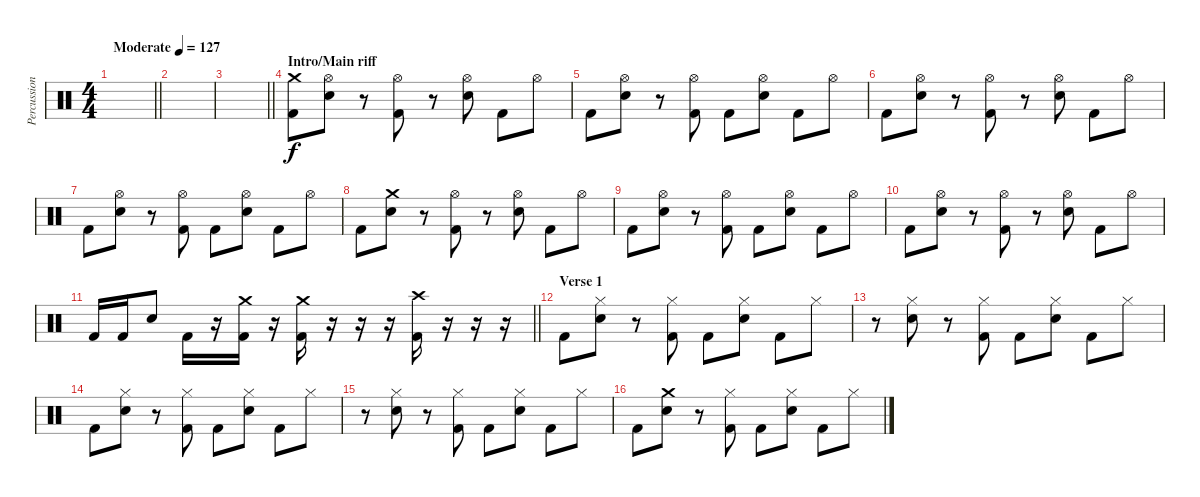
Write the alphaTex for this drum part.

\track ("Percussion" "Percussion") {instrument percussion}
\staff {score}
\articulation defaults
\ts (4 4)
\tempo (127 "Moderate")
\clef neutral
\barLineRight lightlight
\ks c
|
|
\barLineRight lightlight
|
\section ("" "Intro/Main riff")
("Crash medium (hit)" "Kick (hit) 2").8 ("Hi-Hat (open)" "Electric Snare (hit)").8 r.8 ("Hi-Hat (open)" "Kick (hit) 2").8 r.8 ("Hi-Hat (open)" "Electric Snare (hit)").8 "Kick (hit) 2".8 "Hi-Hat (open)".8 |
"Kick (hit) 2".8 ("Hi-Hat (open)" "Electric Snare (hit)").8 r.8 ("Hi-Hat (open)" "Kick (hit) 2").8 "Kick (hit) 2".8 ("Hi-Hat (open)" "Electric Snare (hit)").8 "Kick (hit) 2".8 "Hi-Hat (open)".8 |
"Kick (hit) 2".8 ("Hi-Hat (open)" "Electric Snare (hit)").8 r.8 ("Hi-Hat (open)" "Kick (hit) 2").8 r.8 ("Hi-Hat (open)" "Electric Snare (hit)").8 "Kick (hit) 2".8 "Hi-Hat (open)".8 |
"Kick (hit) 2".8 ("Hi-Hat (open)" "Electric Snare (hit)").8 r.8 ("Hi-Hat (open)" "Kick (hit) 2").8 "Kick (hit) 2".8 ("Hi-Hat (open)" "Electric Snare (hit)").8 "Kick (hit) 2".8 "Hi-Hat (open)".8 |
"Kick (hit) 2".8 ("Crash medium (hit)" "Electric Snare (hit)").8 r.8 ("Hi-Hat (open)" "Kick (hit) 2").8 r.8 ("Hi-Hat (open)" "Electric Snare (hit)").8 "Kick (hit) 2".8 "Hi-Hat (open)".8 |
"Kick (hit) 2".8 ("Hi-Hat (open)" "Electric Snare (hit)").8 r.8 ("Hi-Hat (open)" "Kick (hit) 2").8 "Kick (hit) 2".8 ("Hi-Hat (open)" "Electric Snare (hit)").8 "Kick (hit) 2".8 "Hi-Hat (open)".8 |
"Kick (hit) 2".8 ("Hi-Hat (open)" "Electric Snare (hit)").8 r.8 ("Hi-Hat (open)" "Kick (hit) 2").8 r.8 ("Hi-Hat (open)" "Electric Snare (hit)").8 "Kick (hit) 2".8 "Hi-Hat (open)".8 |
\barLineRight lightlight "Kick (hit) 2".16 "Kick (hit) 2".16 "Electric Snare (hit)".8 "Kick (hit) 2".16
r.16 ("Crash medium (hit)" "Kick (hit) 2").16 r.16 ("Crash medium (hit)" "Kick (hit) 2").16 r.16 r.16 r.16 ("Crash high (hit)" "Kick (hit) 2").16 r.16 r.16 r.16 |
\section ("" "Verse 1")
"Kick (hit) 2".8 ("Hi-Hat (closed)" "Electric Snare (hit)").8 r.8 ("Hi-Hat (closed)" "Kick (hit) 2").8 "Kick (hit) 2".8 ("Hi-Hat (closed)" "Electric Snare (hit)").8 "Kick (hit) 2".8 "Hi-Hat (closed)".8 |
r.8 ("Hi-Hat (closed)" "Electric Snare (hit)").8 r.8 ("Hi-Hat (closed)" "Kick (hit) 2").8 "Kick (hit) 2".8 ("Hi-Hat (closed)" "Electric Snare (hit)").8 "Kick (hit) 2".8 "Hi-Hat (closed)".8 |
"Kick (hit) 2".8 ("Hi-Hat (closed)" "Electric Snare (hit)").8 r.8 ("Hi-Hat (closed)" "Kick (hit) 2").8 "Kick (hit) 2".8 ("Hi-Hat (closed)" "Electric Snare (hit)").8 "Kick (hit) 2".8 "Hi-Hat (closed)".8 |
r.8 ("Hi-Hat (closed)" "Electric Snare (hit)").8 r.8 ("Hi-Hat (closed)" "Kick (hit) 2").8 "Kick (hit) 2".8 ("Hi-Hat (closed)" "Electric Snare (hit)").8 "Kick (hit) 2".8 "Hi-Hat (closed)".8 |
"Kick (hit) 2".8 ("Crash medium (hit)" "Electric Snare (hit)").8 r.8 ("Hi-Hat (closed)" "Kick (hit) 2").8 "Kick (hit) 2".8 ("Hi-Hat (closed)" "Electric Snare (hit)").8 "Kick (hit) 2".8 "Hi-Hat (closed)".8
